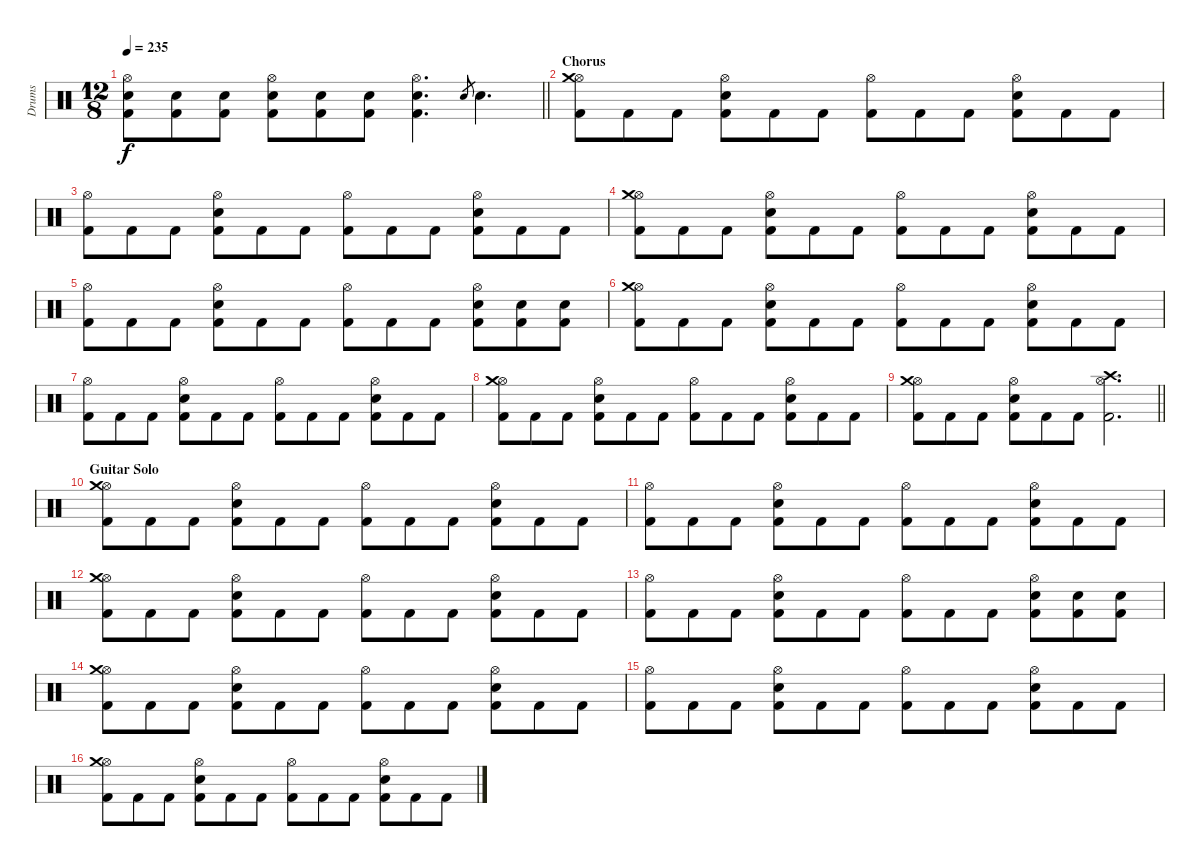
\track ("Drums" "Drums") {instrument percussion}
\staff {score}
\articulation defaults
\ts (12 8)
\tempo 235
\clef neutral
\barLineRight lightlight
\ks c
("Hi-Hat (open)" "Kick (hit) 2" "Snare (hit) 2").8{dy f} ("Kick (hit) 2" "Snare (hit) 2").8 ("Kick (hit) 2" "Snare (hit) 2").8 ("Kick (hit) 2" "Hi-Hat (open)" "Snare (hit) 2").8 ("Kick (hit) 2" "Snare (hit) 2").8 ("Kick (hit) 2" "Snare (hit) 2").8 ("Hi-Hat (open)" "Kick (hit) 2" "Snare (hit) 2").4{d} "Snare (hit) 2".8{gr} "Snare (hit) 2".4{d} |
\section ("" "Chorus")
("Kick (hit) 2" "Hi-Hat (open)" "Crash medium (hit)").8 "Kick (hit) 2".8 "Kick (hit) 2".8 ("Snare (hit) 2" "Hi-Hat (open)" "Kick (hit) 2").8 "Kick (hit) 2".8 "Kick (hit) 2".8 ("Hi-Hat (open)" "Kick (hit) 2").8 "Kick (hit) 2".8 "Kick (hit) 2".8 ("Kick (hit) 2" "Snare (hit) 2" "Hi-Hat (open)").8 "Kick (hit) 2".8 "Kick (hit) 2".8 |
("Hi-Hat (open)" "Kick (hit) 2").8 "Kick (hit) 2".8 "Kick (hit) 2".8 ("Snare (hit) 2" "Kick (hit) 2" "Hi-Hat (open)").8 "Kick (hit) 2".8 "Kick (hit) 2".8 ("Hi-Hat (open)" "Kick (hit) 2").8 "Kick (hit) 2".8 "Kick (hit) 2".8 ("Hi-Hat (open)" "Kick (hit) 2" "Snare (hit) 2").8 "Kick (hit) 2".8 "Kick (hit) 2".8 |
("Hi-Hat (open)" "Kick (hit) 2" "Crash medium (hit)").8 "Kick (hit) 2".8 "Kick (hit) 2".8 ("Kick (hit) 2" "Snare (hit) 2" "Hi-Hat (open)").8 "Kick (hit) 2".8 "Kick (hit) 2".8 ("Kick (hit) 2" "Hi-Hat (open)").8 "Kick (hit) 2".8 "Kick (hit) 2".8 ("Snare (hit) 2" "Kick (hit) 2" "Hi-Hat (open)").8 "Kick (hit) 2".8 "Kick (hit) 2".8 |
("Kick (hit) 2" "Hi-Hat (open)").8 "Kick (hit) 2".8 "Kick (hit) 2".8 ("Hi-Hat (open)" "Kick (hit) 2" "Snare (hit) 2").8 "Kick (hit) 2".8 "Kick (hit) 2".8 ("Kick (hit) 2" "Hi-Hat (open)").8 "Kick (hit) 2".8 "Kick (hit) 2".8 ("Kick (hit) 2" "Hi-Hat (open)" "Snare (hit) 2").8 ("Kick (hit) 2" "Snare (hit) 2").8 ("Kick (hit) 2" "Snare (hit) 2").8 |
("Kick (hit) 2" "Hi-Hat (open)" "Crash medium (hit)").8 "Kick (hit) 2".8 "Kick (hit) 2".8 ("Snare (hit) 2" "Hi-Hat (open)" "Kick (hit) 2").8 "Kick (hit) 2".8 "Kick (hit) 2".8 ("Hi-Hat (open)" "Kick (hit) 2").8 "Kick (hit) 2".8 "Kick (hit) 2".8 ("Kick (hit) 2" "Snare (hit) 2" "Hi-Hat (open)").8 "Kick (hit) 2".8 "Kick (hit) 2".8 |
("Hi-Hat (open)" "Kick (hit) 2").8 "Kick (hit) 2".8 "Kick (hit) 2".8 ("Snare (hit) 2" "Kick (hit) 2" "Hi-Hat (open)").8 "Kick (hit) 2".8 "Kick (hit) 2".8 ("Hi-Hat (open)" "Kick (hit) 2").8 "Kick (hit) 2".8 "Kick (hit) 2".8 ("Hi-Hat (open)" "Kick (hit) 2" "Snare (hit) 2").8 "Kick (hit) 2".8 "Kick (hit) 2".8 |
("Hi-Hat (open)" "Kick (hit) 2" "Crash medium (hit)").8 "Kick (hit) 2".8 "Kick (hit) 2".8 ("Kick (hit) 2" "Snare (hit) 2" "Hi-Hat (open)").8 "Kick (hit) 2".8 "Kick (hit) 2".8 ("Kick (hit) 2" "Hi-Hat (open)").8 "Kick (hit) 2".8 "Kick (hit) 2".8 ("Snare (hit) 2" "Kick (hit) 2" "Hi-Hat (open)").8 "Kick (hit) 2".8 "Kick (hit) 2".8 |
\barLineRight lightlight
("Hi-Hat (open)" "Kick (hit) 2" "Crash medium (hit)").8 "Kick (hit) 2".8 "Kick (hit) 2".8 ("Kick (hit) 2" "Snare (hit) 2" "Hi-Hat (open)").8 "Kick (hit) 2".8 "Kick (hit) 2".8 ("Kick (hit) 2" "Hi-Hat (open)" "Crash high (hit)").2{d} |
\section ("" "Guitar Solo")
("Kick (hit) 2" "Hi-Hat (open)" "Crash medium (hit)").8 "Kick (hit) 2".8 "Kick (hit) 2".8 ("Snare (hit) 2" "Hi-Hat (open)" "Kick (hit) 2").8 "Kick (hit) 2".8 "Kick (hit) 2".8 ("Hi-Hat (open)" "Kick (hit) 2").8 "Kick (hit) 2".8 "Kick (hit) 2".8 ("Kick (hit) 2" "Snare (hit) 2" "Hi-Hat (open)").8 "Kick (hit) 2".8 "Kick (hit) 2".8 |
("Hi-Hat (open)" "Kick (hit) 2").8 "Kick (hit) 2".8 "Kick (hit) 2".8 ("Snare (hit) 2" "Kick (hit) 2" "Hi-Hat (open)").8 "Kick (hit) 2".8 "Kick (hit) 2".8 ("Hi-Hat (open)" "Kick (hit) 2").8 "Kick (hit) 2".8 "Kick (hit) 2".8 ("Hi-Hat (open)" "Kick (hit) 2" "Snare (hit) 2").8 "Kick (hit) 2".8 "Kick (hit) 2".8 |
("Hi-Hat (open)" "Kick (hit) 2" "Crash medium (hit)").8 "Kick (hit) 2".8 "Kick (hit) 2".8 ("Kick (hit) 2" "Snare (hit) 2" "Hi-Hat (open)").8 "Kick (hit) 2".8 "Kick (hit) 2".8 ("Kick (hit) 2" "Hi-Hat (open)").8 "Kick (hit) 2".8 "Kick (hit) 2".8 ("Snare (hit) 2" "Kick (hit) 2" "Hi-Hat (open)").8 "Kick (hit) 2".8 "Kick (hit) 2".8 |
("Kick (hit) 2" "Hi-Hat (open)").8 "Kick (hit) 2".8 "Kick (hit) 2".8 ("Hi-Hat (open)" "Kick (hit) 2" "Snare (hit) 2").8 "Kick (hit) 2".8 "Kick (hit) 2".8 ("Kick (hit) 2" "Hi-Hat (open)").8 "Kick (hit) 2".8 "Kick (hit) 2".8 ("Kick (hit) 2" "Hi-Hat (open)" "Snare (hit) 2").8 ("Kick (hit) 2" "Snare (hit) 2").8 ("Kick (hit) 2" "Snare (hit) 2").8 |
("Kick (hit) 2" "Hi-Hat (open)" "Crash medium (hit)").8 "Kick (hit) 2".8 "Kick (hit) 2".8 ("Snare (hit) 2" "Hi-Hat (open)" "Kick (hit) 2").8 "Kick (hit) 2".8 "Kick (hit) 2".8 ("Hi-Hat (open)" "Kick (hit) 2").8 "Kick (hit) 2".8 "Kick (hit) 2".8 ("Kick (hit) 2" "Snare (hit) 2" "Hi-Hat (open)").8 "Kick (hit) 2".8 "Kick (hit) 2".8 |
("Hi-Hat (open)" "Kick (hit) 2").8 "Kick (hit) 2".8 "Kick (hit) 2".8 ("Snare (hit) 2" "Kick (hit) 2" "Hi-Hat (open)").8 "Kick (hit) 2".8 "Kick (hit) 2".8 ("Hi-Hat (open)" "Kick (hit) 2").8 "Kick (hit) 2".8 "Kick (hit) 2".8 ("Hi-Hat (open)" "Kick (hit) 2" "Snare (hit) 2").8 "Kick (hit) 2".8 "Kick (hit) 2".8 |
("Hi-Hat (open)" "Kick (hit) 2" "Crash medium (hit)").8 "Kick (hit) 2".8 "Kick (hit) 2".8 ("Kick (hit) 2" "Snare (hit) 2" "Hi-Hat (open)").8 "Kick (hit) 2".8 "Kick (hit) 2".8 ("Kick (hit) 2" "Hi-Hat (open)").8 "Kick (hit) 2".8 "Kick (hit) 2".8 ("Snare (hit) 2" "Kick (hit) 2" "Hi-Hat (open)").8 "Kick (hit) 2".8 "Kick (hit) 2".8
